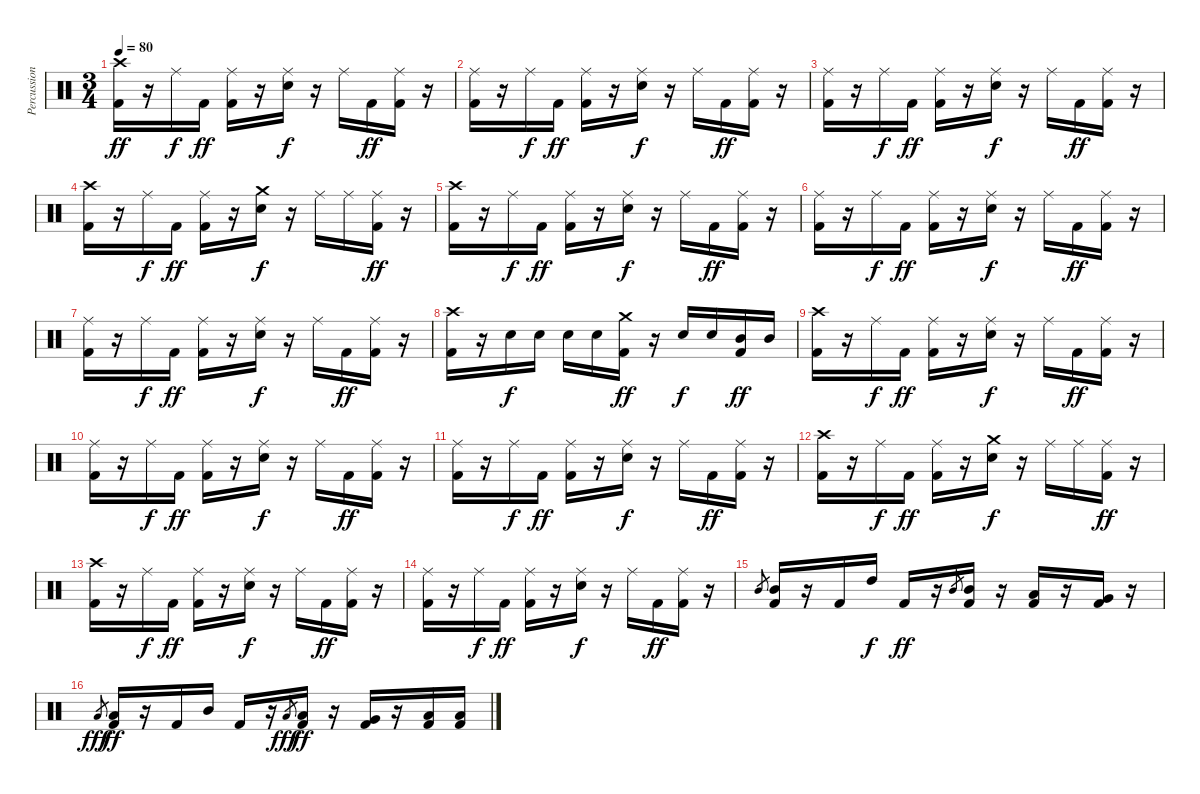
\track ("Percussion" "Percussion") {instrument percussion}
\staff {score}
\articulation defaults
\ts (3 4)
\tempo 80
\clef neutral
\ks c
("Crash high (hit)" "Kick (hit) 2").16{dy ff} r.16 "Ride (middle)".16{dy f} "Kick (hit) 2".16{dy ff} ("Ride (middle)" "Kick (hit) 2").16 r.16 ("Ride (middle)" "Electric Snare (hit)").16{dy f} r.16 "Ride (middle)".16 "Kick (hit) 2".16{dy ff} ("Ride (middle)" "Kick (hit) 2").16 r.16 |
("Ride (middle)" "Kick (hit) 2").16 r.16 "Ride (middle)".16{dy f} "Kick (hit) 2".16{dy ff} ("Ride (middle)" "Kick (hit) 2").16 r.16 ("Ride (middle)" "Electric Snare (hit)").16{dy f} r.16 "Ride (middle)".16 "Kick (hit) 2".16{dy ff} ("Ride (middle)" "Kick (hit) 2").16 r.16 |
("Ride (middle)" "Kick (hit) 2").16 r.16 "Ride (middle)".16{dy f} "Kick (hit) 2".16{dy ff} ("Ride (middle)" "Kick (hit) 2").16 r.16 ("Ride (middle)" "Electric Snare (hit)").16{dy f} r.16 "Ride (middle)".16 "Kick (hit) 2".16{dy ff} ("Ride (middle)" "Kick (hit) 2").16 r.16 |
("Crash high (hit)" "Kick (hit) 2").16 r.16 "Ride (middle)".16{dy f} "Kick (hit) 2".16{dy ff} ("Ride (middle)" "Kick (hit) 2").16 r.16 ("Crash medium (hit)" "Electric Snare (hit)").16{dy f} r.16 "Ride (middle)".16 "Ride (middle)".16 ("Ride (middle)" "Kick (hit) 2").16{dy ff} r.16 |
("Crash high (hit)" "Kick (hit) 2").16 r.16 "Ride (middle)".16{dy f} "Kick (hit) 2".16{dy ff} ("Ride (middle)" "Kick (hit) 2").16 r.16 ("Ride (middle)" "Electric Snare (hit)").16{dy f} r.16 "Ride (middle)".16 "Kick (hit) 2".16{dy ff} ("Ride (middle)" "Kick (hit) 2").16 r.16 |
("Ride (middle)" "Kick (hit) 2").16 r.16 "Ride (middle)".16{dy f} "Kick (hit) 2".16{dy ff} ("Ride (middle)" "Kick (hit) 2").16 r.16 ("Ride (middle)" "Electric Snare (hit)").16{dy f} r.16 "Ride (middle)".16 "Kick (hit) 2".16{dy ff} ("Ride (middle)" "Kick (hit) 2").16 r.16 |
("Ride (middle)" "Kick (hit) 2").16 r.16 "Ride (middle)".16{dy f} "Kick (hit) 2".16{dy ff} ("Ride (middle)" "Kick (hit) 2").16 r.16 ("Ride (middle)" "Electric Snare (hit)").16{dy f} r.16 "Ride (middle)".16 "Kick (hit) 2".16{dy ff} ("Ride (middle)" "Kick (hit) 2").16 r.16 |
("Crash high (hit)" "Kick (hit) 2").16 r.16 "Electric Snare (hit)".16{dy f} "Electric Snare (hit)".16 "Electric Snare (hit)".16 "Electric Snare (hit)".16 ("Crash medium (hit)" "Kick (hit) 2").16{dy ff} r.16 "Electric Snare (hit)".16{dy f} "Electric Snare (hit)".16 ("Mid Tom (hit)" "Kick (hit) 2").16{dy ff} "Mid Tom (hit)".16 |
\section ("" "")
("Crash high (hit)" "Kick (hit) 2").16 r.16 "Ride (middle)".16{dy f} "Kick (hit) 2".16{dy ff} ("Ride (middle)" "Kick (hit) 2").16 r.16 ("Ride (middle)" "Electric Snare (hit)").16{dy f} r.16 "Ride (middle)".16 "Kick (hit) 2".16{dy ff} ("Ride (middle)" "Kick (hit) 2").16 r.16 |
("Ride (middle)" "Kick (hit) 2").16 r.16 "Ride (middle)".16{dy f} "Kick (hit) 2".16{dy ff} ("Ride (middle)" "Kick (hit) 2").16 r.16 ("Ride (middle)" "Electric Snare (hit)").16{dy f} r.16 "Ride (middle)".16 "Kick (hit) 2".16{dy ff} ("Ride (middle)" "Kick (hit) 2").16 r.16 |
("Ride (middle)" "Kick (hit) 2").16 r.16 "Ride (middle)".16{dy f} "Kick (hit) 2".16{dy ff} ("Ride (middle)" "Kick (hit) 2").16 r.16 ("Ride (middle)" "Electric Snare (hit)").16{dy f} r.16 "Ride (middle)".16 "Kick (hit) 2".16{dy ff} ("Ride (middle)" "Kick (hit) 2").16 r.16 |
("Crash high (hit)" "Kick (hit) 2").16 r.16 "Ride (middle)".16{dy f} "Kick (hit) 2".16{dy ff} ("Ride (middle)" "Kick (hit) 2").16 r.16 ("Crash medium (hit)" "Electric Snare (hit)").16{dy f} r.16 "Ride (middle)".16 "Ride (middle)".16 ("Ride (middle)" "Kick (hit) 2").16{dy ff} r.16 |
("Crash high (hit)" "Kick (hit) 2").16 r.16 "Ride (middle)".16{dy f} "Kick (hit) 2".16{dy ff} ("Ride (middle)" "Kick (hit) 2").16 r.16 ("Ride (middle)" "Electric Snare (hit)").16{dy f} r.16 "Ride (middle)".16 "Kick (hit) 2".16{dy ff} ("Ride (middle)" "Kick (hit) 2").16 r.16 |
("Ride (middle)" "Kick (hit) 2").16 r.16 "Ride (middle)".16{dy f} "Kick (hit) 2".16{dy ff} ("Ride (middle)" "Kick (hit) 2").16 r.16 ("Ride (middle)" "Electric Snare (hit)").16{dy f} r.16 "Ride (middle)".16 "Kick (hit) 2".16{dy ff} ("Ride (middle)" "Kick (hit) 2").16 r.16 |
"Mid Tom (hit)".8{gr} ("Mid Tom (hit)" "Kick (hit) 2").16 r.16 "Kick (hit) 2".16 "High Tom (hit)".16{dy f} "Kick (hit) 2".16{dy ff} r.16 "Mid Tom (hit)".8{gr} ("Mid Tom (hit)" "Kick (hit) 2").16 r.16 ("Low Tom (hit)" "Kick (hit) 2").16 r.16 ("Very Low Tom (hit)" "Kick (hit) 2").16 r.16 |
"Low Tom (hit)".8{gr dy fff} ("Low Tom (hit)" "Kick (hit) 2").16{dy ff} r.16 "Kick (hit) 2".16 "Mid Tom (hit)".16 "Kick (hit) 2".16 r.16 "Low Tom (hit)".8{gr dy fff} ("Low Tom (hit)" "Kick (hit) 2").16{dy ff} r.16 ("Very Low Tom (hit)" "Kick (hit) 2").16 r.16 ("Low Floor Tom (hit)" "Kick (hit) 2").16 ("Low Floor Tom (hit)" "Kick (hit) 2").16
